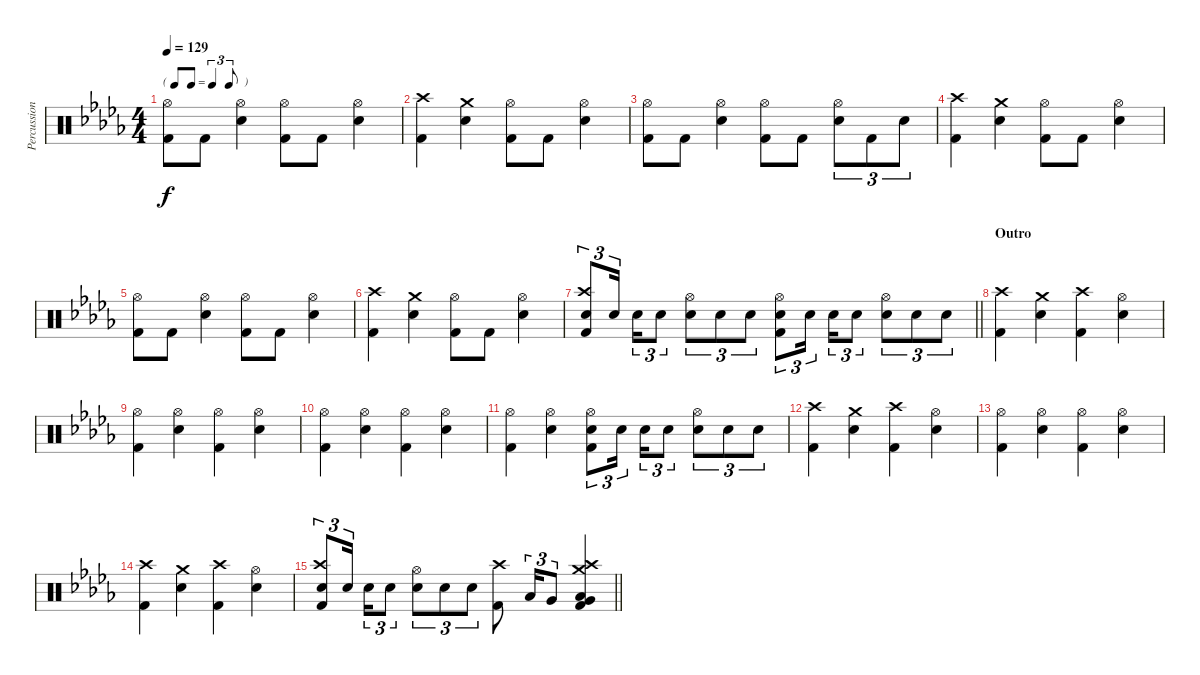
\track ("Percussion" "Percussion") {instrument percussion}
\staff {score}
\articulation defaults
\ts (4 4)
\tf triplet8th
\tempo 129
\clef neutral
\ks db
("Hi-Hat (open)" "Kick (hit) 2").8{dy f} "Kick (hit) 2".8 ("Hi-Hat (open)" "Electric Snare (hit)").4 ("Hi-Hat (open)" "Kick (hit) 2").8 "Kick (hit) 2".8 ("Hi-Hat (open)" "Electric Snare (hit)").4 |
("Crash high (hit)" "Kick (hit) 2").4 ("Crash medium (hit)" "Electric Snare (hit)").4 ("Hi-Hat (open)" "Kick (hit) 2").8 "Kick (hit) 2".8 ("Hi-Hat (open)" "Electric Snare (hit)").4 |
("Hi-Hat (open)" "Kick (hit) 2").8 "Kick (hit) 2".8 ("Hi-Hat (open)" "Electric Snare (hit)").4 ("Hi-Hat (open)" "Kick (hit) 2").8 "Kick (hit) 2".8 ("Hi-Hat (open)" "Electric Snare (hit)").8{tu (3 2)} "Kick (hit) 2".8{tu (3 2)} "Electric Snare (hit)".8{tu (3 2)} |
("Crash high (hit)" "Kick (hit) 2").4 ("Crash medium (hit)" "Electric Snare (hit)").4 ("Hi-Hat (open)" "Kick (hit) 2").8 "Kick (hit) 2".8 ("Hi-Hat (open)" "Electric Snare (hit)").4 |
("Hi-Hat (open)" "Kick (hit) 2").8 "Kick (hit) 2".8 ("Hi-Hat (open)" "Electric Snare (hit)").4 ("Hi-Hat (open)" "Kick (hit) 2").8 "Kick (hit) 2".8 ("Hi-Hat (open)" "Electric Snare (hit)").4 |
("Crash high (hit)" "Kick (hit) 2").4 ("Crash medium (hit)" "Electric Snare (hit)").4 ("Hi-Hat (open)" "Kick (hit) 2").8 "Kick (hit) 2".8 ("Hi-Hat (open)" "Electric Snare (hit)").4 |
\barLineRight lightlight
("Crash high (hit)" "Snare (hit) 2" "Kick (hit) 2").8{tu (3 2)} "Snare (hit) 2".16{tu (3 2) beam splitsecondary} "Snare (hit) 2".16{tu (3 2)} "Snare (hit) 2".8{tu (3 2)} ("Hi-Hat (open)" "Snare (hit) 2").8{tu (3 2)} "Snare (hit) 2".8{tu (3 2)} "Snare (hit) 2".8{tu (3 2)} ("Hi-Hat (open)" "Snare (hit) 2" "Kick (hit) 2").8{tu (3 2)} "Snare (hit) 2".16{tu (3 2) beam splitsecondary} "Snare (hit) 2".16{tu (3 2)} "Snare (hit) 2".8{tu (3 2)} ("Hi-Hat (open)" "Snare (hit) 2").8{tu (3 2)} "Snare (hit) 2".8{tu (3 2)} "Snare (hit) 2".8{tu (3 2)} |
\section ("" "Outro")
("Crash high (hit)" "Kick (hit) 2").4 ("Crash medium (hit)" "Electric Snare (hit)").4 ("Crash high (hit)" "Kick (hit) 2").4 ("Hi-Hat (open)" "Electric Snare (hit)").4 |
("Hi-Hat (open)" "Kick (hit) 2").4 ("Hi-Hat (open)" "Electric Snare (hit)").4 ("Hi-Hat (open)" "Kick (hit) 2").4 ("Hi-Hat (open)" "Electric Snare (hit)").4 |
("Hi-Hat (open)" "Kick (hit) 2").4 ("Hi-Hat (open)" "Electric Snare (hit)").4 ("Hi-Hat (open)" "Kick (hit) 2").4 ("Hi-Hat (open)" "Electric Snare (hit)").4 |
("Hi-Hat (open)" "Kick (hit) 2").4 ("Hi-Hat (open)" "Electric Snare (hit)").4 ("Hi-Hat (open)" "Snare (hit) 2" "Kick (hit) 2").8{tu (3 2)} "Snare (hit) 2".16{tu (3 2) beam splitsecondary} "Snare (hit) 2".16{tu (3 2)} "Snare (hit) 2".8{tu (3 2)} ("Hi-Hat (open)" "Snare (hit) 2").8{tu (3 2)} "Snare (hit) 2".8{tu (3 2)} "Snare (hit) 2".8{tu (3 2)} |
("Crash high (hit)" "Kick (hit) 2").4 ("Crash medium (hit)" "Electric Snare (hit)").4 ("Crash high (hit)" "Kick (hit) 2").4 ("Hi-Hat (open)" "Electric Snare (hit)").4 |
("Hi-Hat (open)" "Kick (hit) 2").4 ("Hi-Hat (open)" "Electric Snare (hit)").4 ("Hi-Hat (open)" "Kick (hit) 2").4 ("Hi-Hat (open)" "Electric Snare (hit)").4 |
("Crash high (hit)" "Kick (hit) 2").4 ("Crash medium (hit)" "Electric Snare (hit)").4 ("Crash high (hit)" "Kick (hit) 2").4 ("Hi-Hat (open)" "Electric Snare (hit)").4 |
\barLineRight lightlight
("Crash high (hit)" "Snare (hit) 2" "Kick (hit) 2").8{tu (3 2)} "Snare (hit) 2".16{tu (3 2) beam splitsecondary} "Snare (hit) 2".16{tu (3 2)} "Snare (hit) 2".8{tu (3 2)} ("Hi-Hat (open)" "Snare (hit) 2").8{tu (3 2)} "Snare (hit) 2".8{tu (3 2)} "Snare (hit) 2".8{tu (3 2)} ("Crash high (hit)" "Kick (hit) 2").8 "Low Tom (hit)".16{tu (3 2)} "Very Low Tom (hit)".8{tu (3 2)} ("Crash high (hit)" "Crash medium (hit)" "Low Tom (hit)" "Very Low Tom (hit)" "Kick (hit) 2").4
